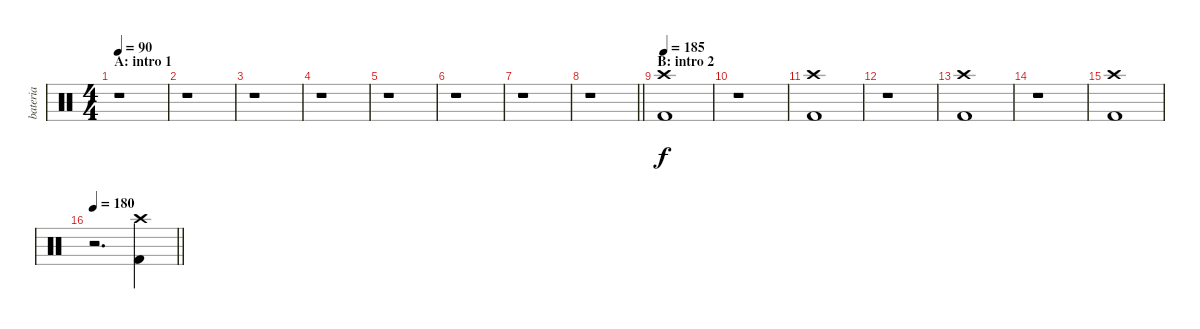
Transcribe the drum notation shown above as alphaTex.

\track ("bateria" "bateria") {instrument percussion}
\staff {score}
\articulation defaults
\ts (4 4)
\section ("" "A: intro 1")
\tempo 90
\clef neutral
\ks c
r.1{dy f} |
r.1 |
r.1 |
r.1 |
r.1 |
r.1 |
r.1 |
\barLineRight lightlight
r.1 |
\section ("" "B: intro 2")
\tempo 185
("Crash high (hit)" "Kick (hit) 2").1{volume 16} |
r.1 |
("Crash high (hit)" "Kick (hit) 2").1 |
r.1 |
("Crash high (hit)" "Kick (hit) 2").1 |
r.1 |
("Crash high (hit)" "Kick (hit) 2").1 |
\tempo 180
\barLineRight lightlight
r.2{d} ("Crash high (hit)" "Kick (hit) 2").4
